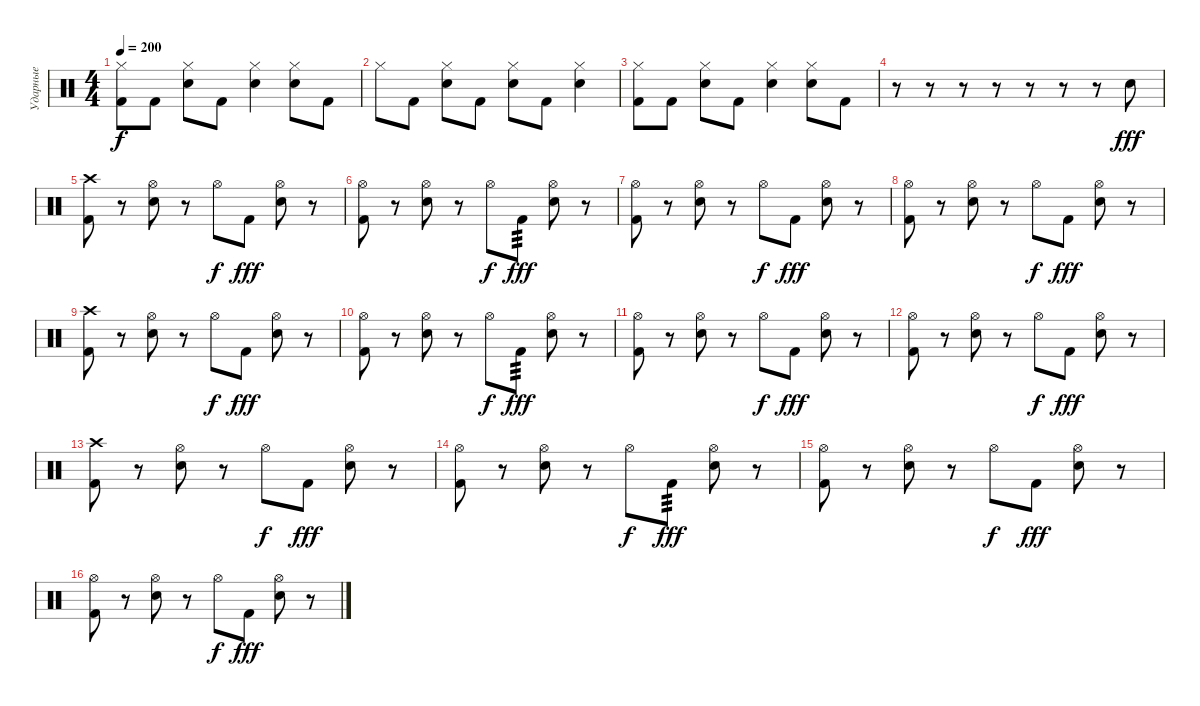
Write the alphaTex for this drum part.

\track ("Ударные" "Ударные") {instrument percussion}
\staff {score}
\articulation defaults
\ts (4 4)
\tempo 200
\clef neutral
\ks c
("Hi-Hat (closed)" "Kick (hit) 2").8{dy f} "Kick (hit) 2".8 ("Hi-Hat (closed)" "Electric Snare (hit)").8 "Kick (hit) 2".8 ("Hi-Hat (closed)" "Electric Snare (hit)").4 ("Hi-Hat (closed)" "Electric Snare (hit)").8 "Kick (hit) 2".8 |
"Hi-Hat (closed)".8 "Kick (hit) 2".8 ("Hi-Hat (closed)" "Electric Snare (hit)").8 "Kick (hit) 2".8 ("Hi-Hat (closed)" "Electric Snare (hit)").8 "Kick (hit) 2".8 ("Hi-Hat (closed)" "Electric Snare (hit)").4 |
("Hi-Hat (closed)" "Kick (hit) 2").8 "Kick (hit) 2".8 ("Hi-Hat (closed)" "Electric Snare (hit)").8 "Kick (hit) 2".8 ("Hi-Hat (closed)" "Electric Snare (hit)").4 ("Hi-Hat (closed)" "Electric Snare (hit)").8 "Kick (hit) 2".8 |
r.8 r.8 r.8 r.8 r.8 r.8 r.8 "Electric Snare (hit)".8{dy fff} |
("Crash high (hit)" "Kick (hit) 2").8 r.8 ("Hi-Hat (open)" "Electric Snare (hit)").8 r.8 "Hi-Hat (open)".8{dy f} "Kick (hit) 2".8{dy fff} ("Hi-Hat (open)" "Electric Snare (hit)").8 r.8 |
("Hi-Hat (open)" "Kick (hit) 2").8 r.8 ("Hi-Hat (open)" "Electric Snare (hit)").8 r.8 "Hi-Hat (open)".8{dy f} "Kick (hit) 2".8{tp 3 dy fff} ("Hi-Hat (open)" "Electric Snare (hit)").8 r.8 |
("Hi-Hat (open)" "Kick (hit) 2").8 r.8 ("Hi-Hat (open)" "Electric Snare (hit)").8 r.8 "Hi-Hat (open)".8{dy f} "Kick (hit) 2".8{dy fff} ("Hi-Hat (open)" "Electric Snare (hit)").8 r.8 |
("Hi-Hat (open)" "Kick (hit) 2").8 r.8 ("Hi-Hat (open)" "Electric Snare (hit)").8 r.8 "Hi-Hat (open)".8{dy f} "Kick (hit) 2".8{dy fff} ("Hi-Hat (open)" "Electric Snare (hit)").8 r.8 |
("Crash high (hit)" "Kick (hit) 2").8 r.8 ("Hi-Hat (open)" "Electric Snare (hit)").8 r.8 "Hi-Hat (open)".8{dy f} "Kick (hit) 2".8{dy fff} ("Hi-Hat (open)" "Electric Snare (hit)").8 r.8 |
("Hi-Hat (open)" "Kick (hit) 2").8 r.8 ("Hi-Hat (open)" "Electric Snare (hit)").8 r.8 "Hi-Hat (open)".8{dy f} "Kick (hit) 2".8{tp 3 dy fff} ("Hi-Hat (open)" "Electric Snare (hit)").8 r.8 |
("Hi-Hat (open)" "Kick (hit) 2").8 r.8 ("Hi-Hat (open)" "Electric Snare (hit)").8 r.8 "Hi-Hat (open)".8{dy f} "Kick (hit) 2".8{dy fff} ("Hi-Hat (open)" "Electric Snare (hit)").8 r.8 |
("Hi-Hat (open)" "Kick (hit) 2").8 r.8 ("Hi-Hat (open)" "Electric Snare (hit)").8 r.8 "Hi-Hat (open)".8{dy f} "Kick (hit) 2".8{dy fff} ("Hi-Hat (open)" "Electric Snare (hit)").8 r.8 |
("Crash high (hit)" "Kick (hit) 2").8 r.8 ("Hi-Hat (open)" "Electric Snare (hit)").8 r.8 "Hi-Hat (open)".8{dy f} "Kick (hit) 2".8{dy fff} ("Hi-Hat (open)" "Electric Snare (hit)").8 r.8 |
("Hi-Hat (open)" "Kick (hit) 2").8 r.8 ("Hi-Hat (open)" "Electric Snare (hit)").8 r.8 "Hi-Hat (open)".8{dy f} "Kick (hit) 2".8{tp 3 dy fff} ("Hi-Hat (open)" "Electric Snare (hit)").8 r.8 |
("Hi-Hat (open)" "Kick (hit) 2").8 r.8 ("Hi-Hat (open)" "Electric Snare (hit)").8 r.8 "Hi-Hat (open)".8{dy f} "Kick (hit) 2".8{dy fff} ("Hi-Hat (open)" "Electric Snare (hit)").8 r.8 |
("Hi-Hat (open)" "Kick (hit) 2").8 r.8 ("Hi-Hat (open)" "Electric Snare (hit)").8 r.8 "Hi-Hat (open)".8{dy f} "Kick (hit) 2".8{dy fff} ("Hi-Hat (open)" "Electric Snare (hit)").8 r.8
